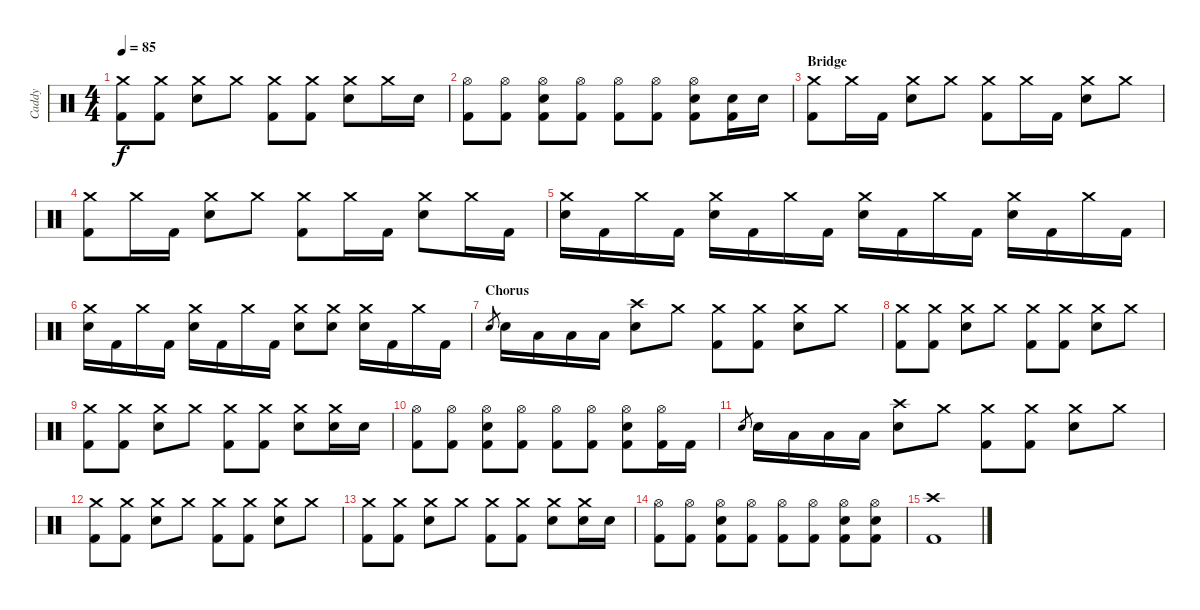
\track ("Caddy" "Caddy") {instrument percussion}
\staff {score}
\articulation defaults
\ts (4 4)
\tempo 85
\clef neutral
\ks c
("Crash medium (hit)" "Kick (hit) 2").8{dy f} ("Crash medium (hit)" "Kick (hit) 2").8 ("Crash medium (hit)" "Electric Snare (hit)").8 "Crash medium (hit)".8 ("Crash medium (hit)" "Kick (hit) 2").8 ("Crash medium (hit)" "Kick (hit) 2").8 ("Crash medium (hit)" "Electric Snare (hit)").8 "Crash medium (hit)".16 "Electric Snare (hit)".16 |
("Hi-Hat (open)" "Kick (hit) 2").8 ("Hi-Hat (open)" "Kick (hit) 2").8 ("Hi-Hat (open)" "Electric Snare (hit)" "Kick (hit) 2").8 ("Hi-Hat (open)" "Kick (hit) 2").8 ("Hi-Hat (open)" "Kick (hit) 2").8 ("Hi-Hat (open)" "Kick (hit) 2").8 ("Hi-Hat (open)" "Electric Snare (hit)" "Kick (hit) 2").8 ("Electric Snare (hit)" "Kick (hit) 2").16 "Electric Snare (hit)".16 |
\section ("" "Bridge")
("Crash medium (hit)" "Kick (hit) 2").8 "Crash medium (hit)".16 "Kick (hit) 2".16 ("Crash medium (hit)" "Electric Snare (hit)").8 "Crash medium (hit)".8 ("Crash medium (hit)" "Kick (hit) 2").8 "Crash medium (hit)".16 "Kick (hit) 2".16 ("Crash medium (hit)" "Electric Snare (hit)").8 "Crash medium (hit)".8 |
("Crash medium (hit)" "Kick (hit) 2").8 "Crash medium (hit)".16 "Kick (hit) 2".16 ("Crash medium (hit)" "Electric Snare (hit)").8 "Crash medium (hit)".8 ("Crash medium (hit)" "Kick (hit) 2").8 "Crash medium (hit)".16 "Kick (hit) 2".16 ("Crash medium (hit)" "Electric Snare (hit)").8 "Crash medium (hit)".16 "Kick (hit) 2".16 |
("Crash medium (hit)" "Electric Snare (hit)").16 "Kick (hit) 2".16 "Crash medium (hit)".16 "Kick (hit) 2".16 ("Crash medium (hit)" "Electric Snare (hit)").16 "Kick (hit) 2".16 "Crash medium (hit)".16 "Kick (hit) 2".16 ("Crash medium (hit)" "Electric Snare (hit)").16 "Kick (hit) 2".16 "Crash medium (hit)".16 "Kick (hit) 2".16 ("Crash medium (hit)" "Electric Snare (hit)").16 "Kick (hit) 2".16 "Crash medium (hit)".16 "Kick (hit) 2".16 |
("Crash medium (hit)" "Electric Snare (hit)").16 "Kick (hit) 2".16 "Crash medium (hit)".16 "Kick (hit) 2".16 ("Crash medium (hit)" "Electric Snare (hit)").16 "Kick (hit) 2".16 "Crash medium (hit)".16 "Kick (hit) 2".16 ("Crash medium (hit)" "Electric Snare (hit)").8 ("Crash medium (hit)" "Electric Snare (hit)").8 ("Crash medium (hit)" "Electric Snare (hit)").16 "Kick (hit) 2".16 "Crash medium (hit)".16 "Kick (hit) 2".16 |
\section ("" "Chorus")
"Electric Snare (hit)".8{gr} "Electric Snare (hit)".16 "Low Tom (hit)".16 "Low Tom (hit)".16 "Low Tom (hit)".16 ("Crash high (hit)" "Electric Snare (hit)").8 "Crash medium (hit)".8 ("Crash medium (hit)" "Kick (hit) 2").8 ("Crash medium (hit)" "Kick (hit) 2").8 ("Crash medium (hit)" "Electric Snare (hit)").8 "Crash medium (hit)".8 |
("Crash medium (hit)" "Kick (hit) 2").8 ("Crash medium (hit)" "Kick (hit) 2").8 ("Crash medium (hit)" "Electric Snare (hit)").8 "Crash medium (hit)".8 ("Crash medium (hit)" "Kick (hit) 2").8 ("Crash medium (hit)" "Kick (hit) 2").8 ("Crash medium (hit)" "Electric Snare (hit)").8 "Crash medium (hit)".8 |
("Crash medium (hit)" "Kick (hit) 2").8 ("Crash medium (hit)" "Kick (hit) 2").8 ("Crash medium (hit)" "Electric Snare (hit)").8 "Crash medium (hit)".8 ("Crash medium (hit)" "Kick (hit) 2").8 ("Crash medium (hit)" "Kick (hit) 2").8 ("Crash medium (hit)" "Electric Snare (hit)").8 ("Crash medium (hit)" "Electric Snare (hit)").16 "Electric Snare (hit)".16 |
("Hi-Hat (open)" "Kick (hit) 2").8 ("Hi-Hat (open)" "Kick (hit) 2").8 ("Hi-Hat (open)" "Electric Snare (hit)" "Kick (hit) 2").8 ("Hi-Hat (open)" "Kick (hit) 2").8 ("Hi-Hat (open)" "Kick (hit) 2").8 ("Hi-Hat (open)" "Kick (hit) 2").8 ("Hi-Hat (open)" "Electric Snare (hit)" "Kick (hit) 2").8 ("Hi-Hat (open)" "Kick (hit) 2").16 "Kick (hit) 2".16 |
"Electric Snare (hit)".8{gr} "Electric Snare (hit)".16 "Low Tom (hit)".16 "Low Tom (hit)".16 "Low Tom (hit)".16 ("Crash high (hit)" "Electric Snare (hit)").8 "Crash medium (hit)".8 ("Crash medium (hit)" "Kick (hit) 2").8 ("Crash medium (hit)" "Kick (hit) 2").8 ("Crash medium (hit)" "Electric Snare (hit)").8 "Crash medium (hit)".8 |
("Crash medium (hit)" "Kick (hit) 2").8 ("Crash medium (hit)" "Kick (hit) 2").8 ("Crash medium (hit)" "Electric Snare (hit)").8 "Crash medium (hit)".8 ("Crash medium (hit)" "Kick (hit) 2").8 ("Crash medium (hit)" "Kick (hit) 2").8 ("Crash medium (hit)" "Electric Snare (hit)").8 "Crash medium (hit)".8 |
("Crash medium (hit)" "Kick (hit) 2").8 ("Crash medium (hit)" "Kick (hit) 2").8 ("Crash medium (hit)" "Electric Snare (hit)").8 "Crash medium (hit)".8 ("Crash medium (hit)" "Kick (hit) 2").8 ("Crash medium (hit)" "Kick (hit) 2").8 ("Crash medium (hit)" "Electric Snare (hit)").8 ("Crash medium (hit)" "Electric Snare (hit)").16 "Electric Snare (hit)".16 |
("Hi-Hat (open)" "Kick (hit) 2").8 ("Hi-Hat (open)" "Kick (hit) 2").8 ("Hi-Hat (open)" "Electric Snare (hit)" "Kick (hit) 2").8 ("Hi-Hat (open)" "Kick (hit) 2").8 ("Hi-Hat (open)" "Kick (hit) 2").8 ("Hi-Hat (open)" "Kick (hit) 2").8 ("Hi-Hat (open)" "Electric Snare (hit)" "Kick (hit) 2").8 ("Hi-Hat (open)" "Electric Snare (hit)" "Kick (hit) 2").8 |
("Crash high (hit)" "Kick (hit) 2").1
